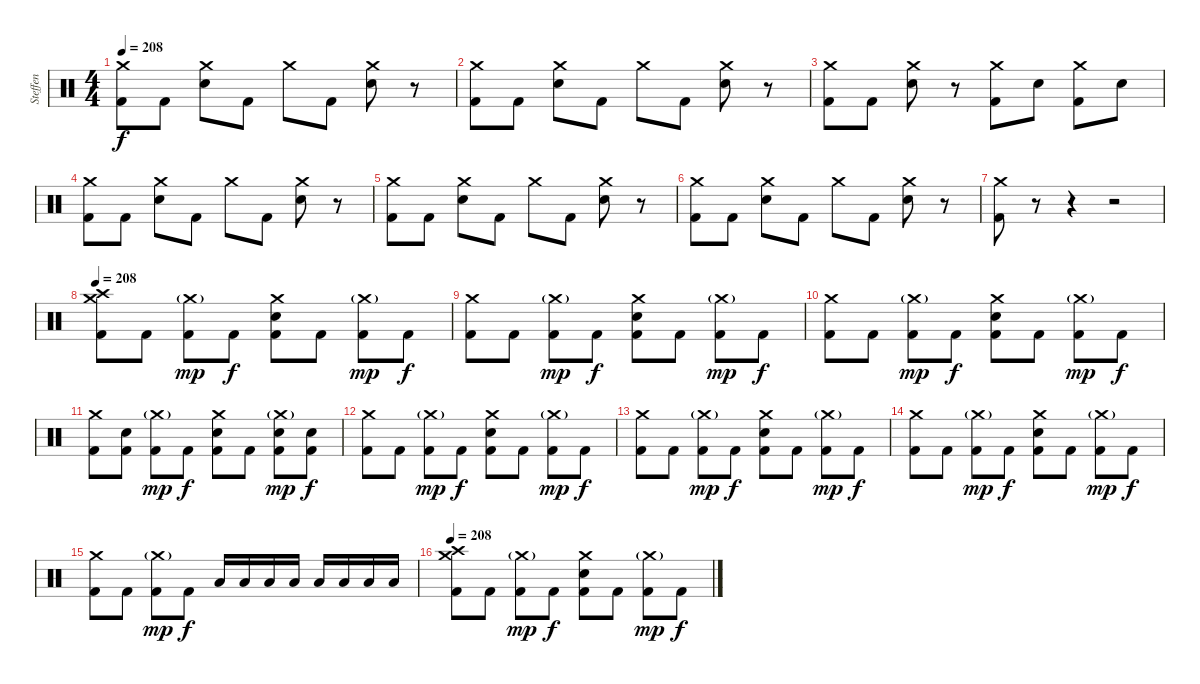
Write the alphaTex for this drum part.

\track ("Steffen" "Steffen") {instrument percussion}
\staff {score}
\articulation defaults
\ts (4 4)
\tempo 208
\clef neutral
\ks c
("Crash medium (hit)" "Kick (hit) 2").8{dy f} "Kick (hit) 2".8 ("Crash medium (hit)" "Snare (hit) 2").8 "Kick (hit) 2".8 "Crash medium (hit)".8 "Kick (hit) 2".8 ("Crash medium (hit)" "Snare (hit) 2").8 r.8 |
("Crash medium (hit)" "Kick (hit) 2").8 "Kick (hit) 2".8 ("Crash medium (hit)" "Snare (hit) 2").8 "Kick (hit) 2".8 "Crash medium (hit)".8 "Kick (hit) 2".8 ("Crash medium (hit)" "Snare (hit) 2").8 r.8 |
("Crash medium (hit)" "Kick (hit) 2").8 "Kick (hit) 2".8 ("Crash medium (hit)" "Snare (hit) 2").8 r.8 ("Crash medium (hit)" "Kick (hit) 2").8 "Snare (hit) 2".8 ("Crash medium (hit)" "Kick (hit) 2").8 "Snare (hit) 2".8 |
("Crash medium (hit)" "Kick (hit) 2").8 "Kick (hit) 2".8 ("Crash medium (hit)" "Snare (hit) 2").8 "Kick (hit) 2".8 "Crash medium (hit)".8 "Kick (hit) 2".8 ("Crash medium (hit)" "Snare (hit) 2").8 r.8 |
("Crash medium (hit)" "Kick (hit) 2").8 "Kick (hit) 2".8 ("Crash medium (hit)" "Snare (hit) 2").8 "Kick (hit) 2".8 "Crash medium (hit)".8 "Kick (hit) 2".8 ("Crash medium (hit)" "Snare (hit) 2").8 r.8 |
("Crash medium (hit)" "Kick (hit) 2").8 "Kick (hit) 2".8 ("Crash medium (hit)" "Snare (hit) 2").8 "Kick (hit) 2".8 "Crash medium (hit)".8 "Kick (hit) 2".8 ("Crash medium (hit)" "Snare (hit) 2").8 r.8 |
("Crash medium (hit)" "Kick (hit) 2").8 r.8 r.4 r.2 |
\tempo 208
("Crash medium (hit)" "Crash high (hit)" "Kick (hit) 2").8 "Kick (hit) 2".8 ("Crash medium (hit)"{g} "Kick (hit) 2").8{dy mp} "Kick (hit) 2".8{dy f} ("Crash medium (hit)" "Snare (hit) 2" "Kick (hit) 2").8 "Kick (hit) 2".8 ("Crash medium (hit)"{g} "Kick (hit) 2").8{dy mp} "Kick (hit) 2".8{dy f} |
("Crash medium (hit)" "Kick (hit) 2").8 "Kick (hit) 2".8 ("Crash medium (hit)"{g} "Kick (hit) 2").8{dy mp} "Kick (hit) 2".8{dy f} ("Crash medium (hit)" "Snare (hit) 2" "Kick (hit) 2").8 "Kick (hit) 2".8 ("Crash medium (hit)"{g} "Kick (hit) 2").8{dy mp} "Kick (hit) 2".8{dy f} |
("Crash medium (hit)" "Kick (hit) 2").8 "Kick (hit) 2".8 ("Crash medium (hit)"{g} "Kick (hit) 2").8{dy mp} "Kick (hit) 2".8{dy f} ("Crash medium (hit)" "Snare (hit) 2" "Kick (hit) 2").8 "Kick (hit) 2".8 ("Crash medium (hit)"{g} "Kick (hit) 2").8{dy mp} "Kick (hit) 2".8{dy f} |
("Crash medium (hit)" "Kick (hit) 2").8 ("Snare (hit) 2" "Kick (hit) 2").8 ("Crash medium (hit)"{g} "Kick (hit) 2").8{dy mp} "Kick (hit) 2".8{dy f} ("Crash medium (hit)" "Snare (hit) 2" "Kick (hit) 2").8 "Kick (hit) 2".8 ("Crash medium (hit)"{g} "Snare (hit) 2" "Kick (hit) 2").8{dy mp} ("Snare (hit) 2" "Kick (hit) 2").8{dy f} |
("Crash medium (hit)" "Kick (hit) 2").8 "Kick (hit) 2".8 ("Crash medium (hit)"{g} "Kick (hit) 2").8{dy mp} "Kick (hit) 2".8{dy f} ("Crash medium (hit)" "Snare (hit) 2" "Kick (hit) 2").8 "Kick (hit) 2".8 ("Crash medium (hit)"{g} "Kick (hit) 2").8{dy mp} "Kick (hit) 2".8{dy f} |
("Crash medium (hit)" "Kick (hit) 2").8 "Kick (hit) 2".8 ("Crash medium (hit)"{g} "Kick (hit) 2").8{dy mp} "Kick (hit) 2".8{dy f} ("Crash medium (hit)" "Snare (hit) 2" "Kick (hit) 2").8 "Kick (hit) 2".8 ("Crash medium (hit)"{g} "Kick (hit) 2").8{dy mp} "Kick (hit) 2".8{dy f} |
("Crash medium (hit)" "Kick (hit) 2").8 "Kick (hit) 2".8 ("Crash medium (hit)"{g} "Kick (hit) 2").8{dy mp} "Kick (hit) 2".8{dy f} ("Crash medium (hit)" "Snare (hit) 2" "Kick (hit) 2").8 "Kick (hit) 2".8 ("Crash medium (hit)"{g} "Kick (hit) 2").8{dy mp} "Kick (hit) 2".8{dy f} |
("Crash medium (hit)" "Kick (hit) 2").8 "Kick (hit) 2".8 ("Crash medium (hit)"{g} "Kick (hit) 2").8{dy mp} "Kick (hit) 2".8{dy f} "Low Tom (hit)".16 "Low Tom (hit)".16 "Low Tom (hit)".16 "Low Tom (hit)".16 "Low Floor Tom (hit)".16 "Low Floor Tom (hit)".16 "Low Floor Tom (hit)".16 "Low Floor Tom (hit)".16 |
\tempo 208
("Crash medium (hit)" "Crash high (hit)" "Kick (hit) 2").8 "Kick (hit) 2".8 ("Crash medium (hit)"{g} "Kick (hit) 2").8{dy mp} "Kick (hit) 2".8{dy f} ("Crash medium (hit)" "Snare (hit) 2" "Kick (hit) 2").8 "Kick (hit) 2".8 ("Crash medium (hit)"{g} "Kick (hit) 2").8{dy mp} "Kick (hit) 2".8{dy f}
